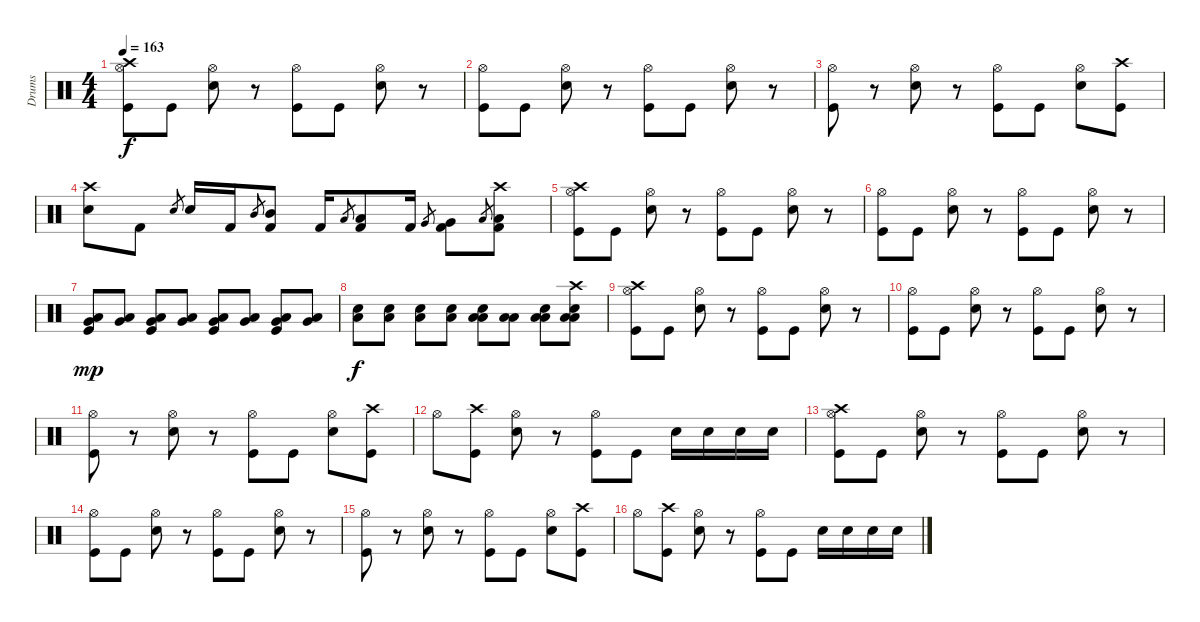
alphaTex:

\track ("Drums" "Drums") {instrument percussion}
\staff {score}
\articulation defaults
\ts (4 4)
\tempo 163
\clef neutral
\ks c
("Crash high (hit)" "Kick (hit)" "Hi-Hat (open)").8{dy f} "Kick (hit)".8 ("Electric Snare (hit)" "Hi-Hat (open)").8 r.8 ("Kick (hit)" "Hi-Hat (open)").8 "Kick (hit)".8 ("Electric Snare (hit)" "Hi-Hat (open)").8 r.8 |
("Kick (hit)" "Hi-Hat (open)").8 "Kick (hit)".8 ("Electric Snare (hit)" "Hi-Hat (open)").8 r.8 ("Kick (hit)" "Hi-Hat (open)").8 "Kick (hit)".8 ("Electric Snare (hit)" "Hi-Hat (open)").8 r.8 |
("Kick (hit)" "Hi-Hat (open)").8 r.8 ("Electric Snare (hit)" "Hi-Hat (open)").8 r.8 ("Kick (hit)" "Hi-Hat (open)").8 "Kick (hit)".8 ("Electric Snare (hit)" "Hi-Hat (open)").8 ("Kick (hit)" "Crash high (hit)").8 |
("Crash high (hit)" "Snare (hit) 2").8 "Kick (hit) 2".8 "Snare (hit) 2".8{gr} "Snare (hit) 2".16 "Kick (hit) 2".16 "Mid Tom (hit)".8{gr} ("Kick (hit) 2" "Mid Tom (hit)").8 "Kick (hit) 2".16 "Low Tom (hit)".8{gr} ("Kick (hit) 2" "Low Tom (hit)").8 "Kick (hit) 2".16 "Very Low Tom (hit)".8{gr} ("Kick (hit) 2" "Very Low Tom (hit)").8 "Low Floor Tom (hit)".8{gr} ("Crash high (hit)" "Kick (hit) 2" "Low Floor Tom (hit)").8 |
("Crash high (hit)" "Kick (hit)" "Hi-Hat (open)").8 "Kick (hit)".8 ("Electric Snare (hit)" "Hi-Hat (open)").8 r.8 ("Kick (hit)" "Hi-Hat (open)").8 "Kick (hit)".8 ("Electric Snare (hit)" "Hi-Hat (open)").8 r.8 |
("Kick (hit)" "Hi-Hat (open)").8 "Kick (hit)".8 ("Electric Snare (hit)" "Hi-Hat (open)").8 r.8 ("Kick (hit)" "Hi-Hat (open)").8 "Kick (hit)".8 ("Electric Snare (hit)" "Hi-Hat (open)").8 r.8 |
("Very Low Tom (hit)" "Low Floor Tom (hit)" "Kick (hit)").8{dy mp} ("Very Low Tom (hit)" "Low Floor Tom (hit)").8 ("Very Low Tom (hit)" "Low Floor Tom (hit)" "Kick (hit)").8 ("Very Low Tom (hit)" "Low Floor Tom (hit)").8 ("Very Low Tom (hit)" "Low Floor Tom (hit)" "Kick (hit)").8 ("Very Low Tom (hit)" "Low Floor Tom (hit)").8 ("Very Low Tom (hit)" "Low Floor Tom (hit)" "Kick (hit)").8 ("Very Low Tom (hit)" "Low Floor Tom (hit)").8 |
("Snare (hit) 2" "Low Floor Tom (hit)").8{dy f} ("Snare (hit) 2" "Low Floor Tom (hit)").8 ("Snare (hit) 2" "Low Floor Tom (hit)").8 ("Snare (hit) 2" "Low Floor Tom (hit)").8 ("Snare (hit) 2" "Low Tom (hit)" "Low Floor Tom (hit)").8 ("Low Tom (hit)" "Low Floor Tom (hit)").8 ("Snare (hit) 2" "Low Tom (hit)" "Low Floor Tom (hit)").8 ("Crash high (hit)" "Snare (hit) 2" "Low Tom (hit)" "Low Floor Tom (hit)").8 |
("Crash high (hit)" "Kick (hit)" "Hi-Hat (open)").8 "Kick (hit)".8 ("Electric Snare (hit)" "Hi-Hat (open)").8 r.8 ("Kick (hit)" "Hi-Hat (open)").8 "Kick (hit)".8 ("Electric Snare (hit)" "Hi-Hat (open)").8 r.8 |
("Kick (hit)" "Hi-Hat (open)").8 "Kick (hit)".8 ("Electric Snare (hit)" "Hi-Hat (open)").8 r.8 ("Kick (hit)" "Hi-Hat (open)").8 "Kick (hit)".8 ("Electric Snare (hit)" "Hi-Hat (open)").8 r.8 |
("Kick (hit)" "Hi-Hat (open)").8 r.8 ("Electric Snare (hit)" "Hi-Hat (open)").8 r.8 ("Kick (hit)" "Hi-Hat (open)").8 "Kick (hit)".8 ("Electric Snare (hit)" "Hi-Hat (open)").8 ("Kick (hit)" "Crash high (hit)").8 |
"Hi-Hat (open)".8 ("Kick (hit)" "Crash high (hit)").8 ("Electric Snare (hit)" "Hi-Hat (open)").8 r.8 ("Kick (hit)" "Hi-Hat (open)").8 "Kick (hit)".8 "Snare (hit) 2".16 "Snare (hit) 2".16 "Snare (hit) 2".16 "Snare (hit) 2".16 |
("Crash high (hit)" "Kick (hit)" "Hi-Hat (open)").8 "Kick (hit)".8 ("Electric Snare (hit)" "Hi-Hat (open)").8 r.8 ("Kick (hit)" "Hi-Hat (open)").8 "Kick (hit)".8 ("Electric Snare (hit)" "Hi-Hat (open)").8 r.8 |
("Kick (hit)" "Hi-Hat (open)").8 "Kick (hit)".8 ("Electric Snare (hit)" "Hi-Hat (open)").8 r.8 ("Kick (hit)" "Hi-Hat (open)").8 "Kick (hit)".8 ("Electric Snare (hit)" "Hi-Hat (open)").8 r.8 |
("Kick (hit)" "Hi-Hat (open)").8 r.8 ("Electric Snare (hit)" "Hi-Hat (open)").8 r.8 ("Kick (hit)" "Hi-Hat (open)").8 "Kick (hit)".8 ("Electric Snare (hit)" "Hi-Hat (open)").8 ("Kick (hit)" "Crash high (hit)").8 |
"Hi-Hat (open)".8 ("Kick (hit)" "Crash high (hit)").8 ("Electric Snare (hit)" "Hi-Hat (open)").8 r.8 ("Kick (hit)" "Hi-Hat (open)").8 "Kick (hit)".8 "Snare (hit) 2".16 "Snare (hit) 2".16 "Snare (hit) 2".16 "Snare (hit) 2".16
